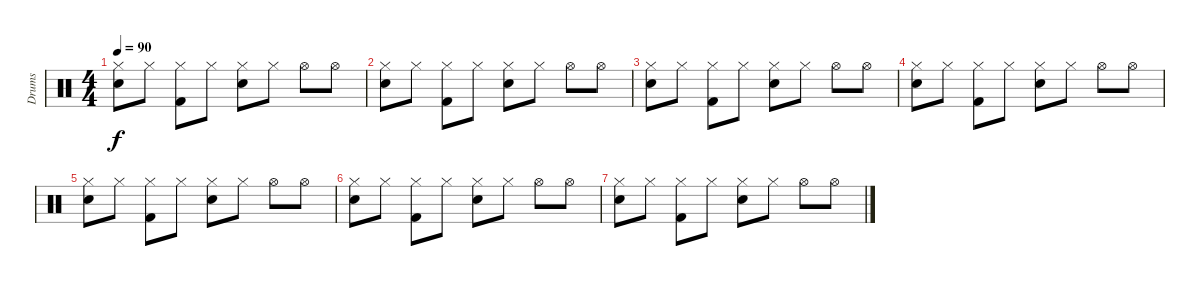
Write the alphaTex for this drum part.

\track ("Drums" "Drums") {instrument percussion}
\staff {score}
\articulation defaults
\ts (4 4)
\tempo 90
\clef neutral
\ks c
("Hi-Hat (closed)" "Snare (hit) 2").8{dy f} "Hi-Hat (closed)".8 ("Hi-Hat (closed)" "Kick (hit) 2").8 "Hi-Hat (closed)".8 ("Hi-Hat (closed)" "Snare (hit) 2").8 "Hi-Hat (closed)".8 "Hi-Hat (open)".8 "Hi-Hat (open)".8 |
("Hi-Hat (closed)" "Snare (hit) 2").8 "Hi-Hat (closed)".8 ("Hi-Hat (closed)" "Kick (hit) 2").8 "Hi-Hat (closed)".8 ("Hi-Hat (closed)" "Snare (hit) 2").8 "Hi-Hat (closed)".8 "Hi-Hat (open)".8 "Hi-Hat (open)".8 |
("Hi-Hat (closed)" "Snare (hit) 2").8 "Hi-Hat (closed)".8 ("Hi-Hat (closed)" "Kick (hit) 2").8 "Hi-Hat (closed)".8 ("Hi-Hat (closed)" "Snare (hit) 2").8 "Hi-Hat (closed)".8 "Hi-Hat (open)".8 "Hi-Hat (open)".8 |
("Hi-Hat (closed)" "Snare (hit) 2").8 "Hi-Hat (closed)".8 ("Hi-Hat (closed)" "Kick (hit) 2").8 "Hi-Hat (closed)".8 ("Hi-Hat (closed)" "Snare (hit) 2").8 "Hi-Hat (closed)".8 "Hi-Hat (open)".8 "Hi-Hat (open)".8 |
("Hi-Hat (closed)" "Snare (hit) 2").8 "Hi-Hat (closed)".8 ("Hi-Hat (closed)" "Kick (hit) 2").8 "Hi-Hat (closed)".8 ("Hi-Hat (closed)" "Snare (hit) 2").8 "Hi-Hat (closed)".8 "Hi-Hat (open)".8 "Hi-Hat (open)".8 |
("Hi-Hat (closed)" "Snare (hit) 2").8 "Hi-Hat (closed)".8 ("Hi-Hat (closed)" "Kick (hit) 2").8 "Hi-Hat (closed)".8 ("Hi-Hat (closed)" "Snare (hit) 2").8 "Hi-Hat (closed)".8 "Hi-Hat (open)".8 "Hi-Hat (open)".8 |
("Hi-Hat (closed)" "Snare (hit) 2").8 "Hi-Hat (closed)".8 ("Hi-Hat (closed)" "Kick (hit) 2").8 "Hi-Hat (closed)".8 ("Hi-Hat (closed)" "Snare (hit) 2").8 "Hi-Hat (closed)".8 "Hi-Hat (open)".8 "Hi-Hat (open)".8
